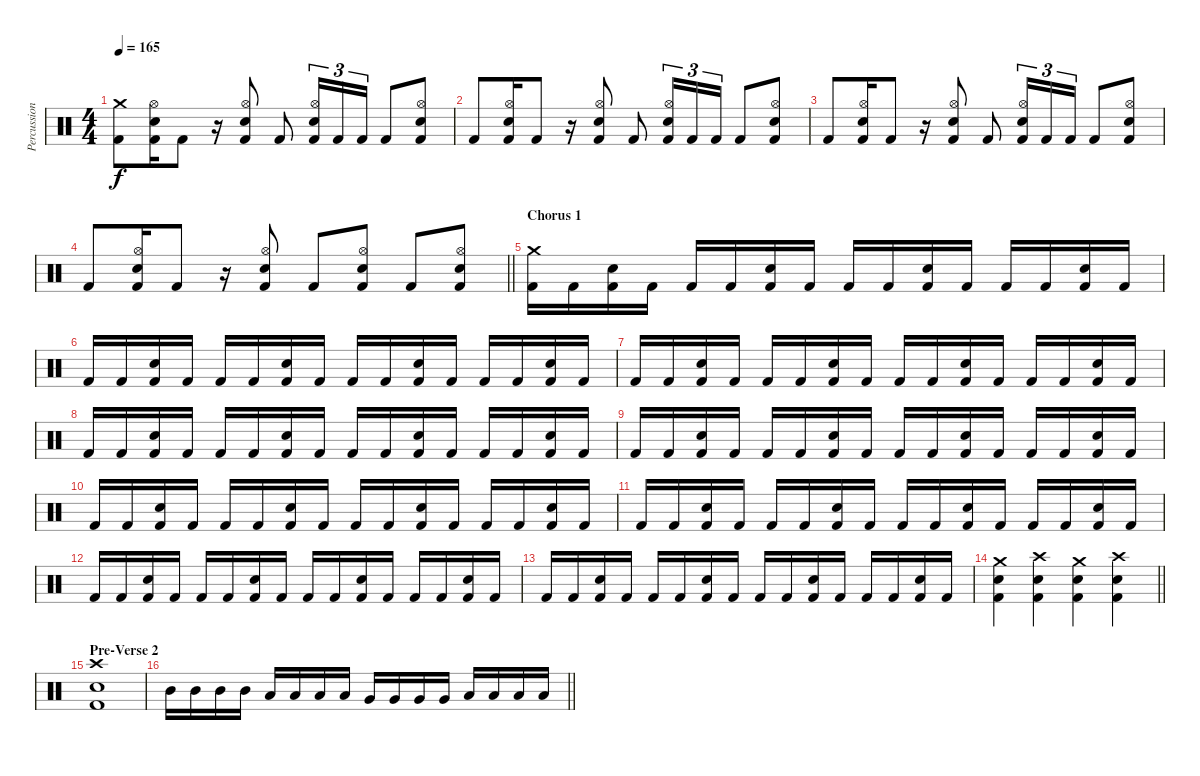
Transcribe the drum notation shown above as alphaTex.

\track ("Percussion" "Percussion") {instrument percussion}
\staff {score}
\articulation defaults
\ts (4 4)
\tempo 165
\clef neutral
\ks c
("Crash medium (hit)" "Kick (hit) 2").8{dy f} ("Hi-Hat (open)" "Kick (hit) 2" "Snare (hit) 2").16 "Kick (hit) 2".8 r.16 ("Hi-Hat (open)" "Kick (hit) 2" "Snare (hit) 2").8 "Kick (hit) 2".8 ("Hi-Hat (open)" "Kick (hit) 2" "Snare (hit) 2").16{tu (3 2)} "Kick (hit) 2".16{tu (3 2)} "Kick (hit) 2".16{tu (3 2)} "Kick (hit) 2".8 ("Hi-Hat (open)" "Kick (hit) 2" "Snare (hit) 2").8 |
"Kick (hit) 2".8 ("Hi-Hat (open)" "Kick (hit) 2" "Snare (hit) 2").16 "Kick (hit) 2".8 r.16 ("Hi-Hat (open)" "Kick (hit) 2" "Snare (hit) 2").8 "Kick (hit) 2".8 ("Hi-Hat (open)" "Kick (hit) 2" "Snare (hit) 2").16{tu (3 2)} "Kick (hit) 2".16{tu (3 2)} "Kick (hit) 2".16{tu (3 2)} "Kick (hit) 2".8 ("Hi-Hat (open)" "Kick (hit) 2" "Snare (hit) 2").8 |
"Kick (hit) 2".8 ("Hi-Hat (open)" "Kick (hit) 2" "Snare (hit) 2").16 "Kick (hit) 2".8 r.16 ("Hi-Hat (open)" "Kick (hit) 2" "Snare (hit) 2").8 "Kick (hit) 2".8 ("Hi-Hat (open)" "Kick (hit) 2" "Snare (hit) 2").16{tu (3 2)} "Kick (hit) 2".16{tu (3 2)} "Kick (hit) 2".16{tu (3 2)} "Kick (hit) 2".8 ("Hi-Hat (open)" "Kick (hit) 2" "Snare (hit) 2").8 |
\barLineRight lightlight "Kick (hit) 2".8
("Hi-Hat (open)" "Kick (hit) 2" "Snare (hit) 2").16 "Kick (hit) 2".8 r.16 ("Hi-Hat (open)" "Kick (hit) 2" "Snare (hit) 2").8 "Kick (hit) 2".8 ("Hi-Hat (open)" "Kick (hit) 2" "Snare (hit) 2").8 "Kick (hit) 2".8 ("Hi-Hat (open)" "Kick (hit) 2" "Snare (hit) 2").8 |
\section ("" "Chorus 1")
("Crash medium (hit)" "Kick (hit) 2").16 "Kick (hit) 2".16 ("Kick (hit) 2" "Snare (hit) 2").16 "Kick (hit) 2".16 "Kick (hit) 2".16 "Kick (hit) 2".16 ("Kick (hit) 2" "Snare (hit) 2").16 "Kick (hit) 2".16 "Kick (hit) 2".16 "Kick (hit) 2".16 ("Kick (hit) 2" "Snare (hit) 2").16 "Kick (hit) 2".16 "Kick (hit) 2".16 "Kick (hit) 2".16 ("Kick (hit) 2" "Snare (hit) 2").16 "Kick (hit) 2".16 |
"Kick (hit) 2".16 "Kick (hit) 2".16 ("Kick (hit) 2" "Snare (hit) 2").16 "Kick (hit) 2".16 "Kick (hit) 2".16 "Kick (hit) 2".16 ("Kick (hit) 2" "Snare (hit) 2").16 "Kick (hit) 2".16 "Kick (hit) 2".16 "Kick (hit) 2".16 ("Kick (hit) 2" "Snare (hit) 2").16 "Kick (hit) 2".16 "Kick (hit) 2".16 "Kick (hit) 2".16 ("Kick (hit) 2" "Snare (hit) 2").16 "Kick (hit) 2".16 |
"Kick (hit) 2".16 "Kick (hit) 2".16 ("Kick (hit) 2" "Snare (hit) 2").16 "Kick (hit) 2".16 "Kick (hit) 2".16 "Kick (hit) 2".16 ("Kick (hit) 2" "Snare (hit) 2").16 "Kick (hit) 2".16 "Kick (hit) 2".16 "Kick (hit) 2".16 ("Kick (hit) 2" "Snare (hit) 2").16 "Kick (hit) 2".16 "Kick (hit) 2".16 "Kick (hit) 2".16 ("Kick (hit) 2" "Snare (hit) 2").16 "Kick (hit) 2".16 |
"Kick (hit) 2".16 "Kick (hit) 2".16 ("Kick (hit) 2" "Snare (hit) 2").16 "Kick (hit) 2".16 "Kick (hit) 2".16 "Kick (hit) 2".16 ("Kick (hit) 2" "Snare (hit) 2").16 "Kick (hit) 2".16 "Kick (hit) 2".16 "Kick (hit) 2".16 ("Kick (hit) 2" "Snare (hit) 2").16 "Kick (hit) 2".16 "Kick (hit) 2".16 "Kick (hit) 2".16 ("Kick (hit) 2" "Snare (hit) 2").16 "Kick (hit) 2".16 |
"Kick (hit) 2".16 "Kick (hit) 2".16 ("Kick (hit) 2" "Snare (hit) 2").16 "Kick (hit) 2".16 "Kick (hit) 2".16 "Kick (hit) 2".16 ("Kick (hit) 2" "Snare (hit) 2").16 "Kick (hit) 2".16 "Kick (hit) 2".16 "Kick (hit) 2".16 ("Kick (hit) 2" "Snare (hit) 2").16 "Kick (hit) 2".16 "Kick (hit) 2".16 "Kick (hit) 2".16 ("Kick (hit) 2" "Snare (hit) 2").16 "Kick (hit) 2".16 |
"Kick (hit) 2".16 "Kick (hit) 2".16 ("Kick (hit) 2" "Snare (hit) 2").16 "Kick (hit) 2".16 "Kick (hit) 2".16 "Kick (hit) 2".16 ("Kick (hit) 2" "Snare (hit) 2").16 "Kick (hit) 2".16 "Kick (hit) 2".16 "Kick (hit) 2".16 ("Kick (hit) 2" "Snare (hit) 2").16 "Kick (hit) 2".16 "Kick (hit) 2".16 "Kick (hit) 2".16 ("Kick (hit) 2" "Snare (hit) 2").16 "Kick (hit) 2".16 |
"Kick (hit) 2".16 "Kick (hit) 2".16 ("Kick (hit) 2" "Snare (hit) 2").16 "Kick (hit) 2".16 "Kick (hit) 2".16 "Kick (hit) 2".16 ("Kick (hit) 2" "Snare (hit) 2").16 "Kick (hit) 2".16 "Kick (hit) 2".16 "Kick (hit) 2".16 ("Kick (hit) 2" "Snare (hit) 2").16 "Kick (hit) 2".16 "Kick (hit) 2".16 "Kick (hit) 2".16 ("Kick (hit) 2" "Snare (hit) 2").16 "Kick (hit) 2".16 |
"Kick (hit) 2".16 "Kick (hit) 2".16 ("Kick (hit) 2" "Snare (hit) 2").16 "Kick (hit) 2".16 "Kick (hit) 2".16 "Kick (hit) 2".16 ("Kick (hit) 2" "Snare (hit) 2").16 "Kick (hit) 2".16 "Kick (hit) 2".16 "Kick (hit) 2".16 ("Kick (hit) 2" "Snare (hit) 2").16 "Kick (hit) 2".16 "Kick (hit) 2".16 "Kick (hit) 2".16 ("Kick (hit) 2" "Snare (hit) 2").16 "Kick (hit) 2".16 |
"Kick (hit) 2".16 "Kick (hit) 2".16 ("Kick (hit) 2" "Snare (hit) 2").16 "Kick (hit) 2".16 "Kick (hit) 2".16 "Kick (hit) 2".16 ("Kick (hit) 2" "Snare (hit) 2").16 "Kick (hit) 2".16 "Kick (hit) 2".16 "Kick (hit) 2".16 ("Kick (hit) 2" "Snare (hit) 2").16 "Kick (hit) 2".16 "Kick (hit) 2".16 "Kick (hit) 2".16 ("Kick (hit) 2" "Snare (hit) 2").16 "Kick (hit) 2".16 |
\barLineRight lightlight
("Crash medium (hit)" "Kick (hit) 2" "Snare (hit) 2").4 ("Crash high (hit)" "Kick (hit) 2" "Snare (hit) 2").4 ("Crash medium (hit)" "Kick (hit) 2" "Snare (hit) 2").4 ("Crash high (hit)" "Kick (hit) 2" "Snare (hit) 2").4 |
\section ("" "Pre-Verse 2")
("Crash high (hit)" "Kick (hit) 2" "Snare (hit) 2").1 |
\barLineRight lightlight "Mid Tom (hit)".16 "Mid Tom (hit)".16 "Mid Tom (hit)".16 "Mid Tom (hit)".16 "Low Tom (hit)".16 "Low Tom (hit)".16 "Low Tom (hit)".16 "Low Tom (hit)".16 "Very Low Tom (hit)".16 "Very Low Tom (hit)".16 "Very Low Tom (hit)".16 "Very Low Tom (hit)".16 "Low Floor Tom (hit)".16 "Low Floor Tom (hit)".16 "Low Floor Tom (hit)".16 "Low Floor Tom (hit)".16
